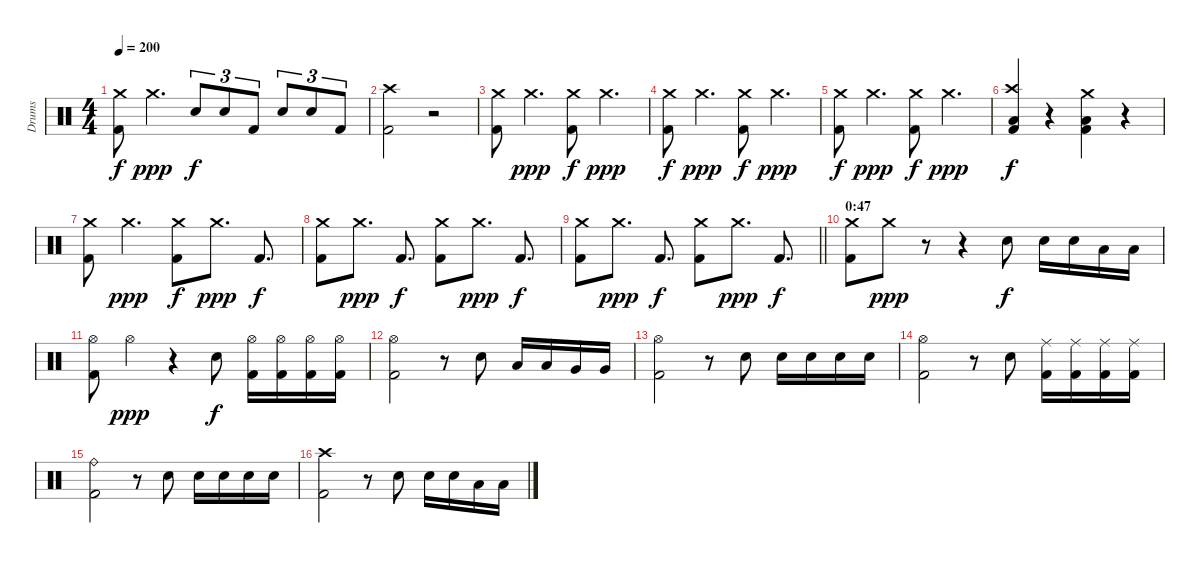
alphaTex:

\track ("Drums" "Drums") {instrument percussion}
\staff {score}
\articulation defaults
\ts (4 4)
\tempo 200
\clef neutral
\ks c
("Crash medium (hit)" "Kick (hit) 2").8{dy f} "Crash medium (hit)".4{d dy ppp} "Snare (hit) 2".8{tu (3 2) dy f} "Snare (hit) 2".8{tu (3 2)} "Kick (hit) 2".8{tu (3 2)} "Snare (hit) 2".8{tu (3 2)} "Snare (hit) 2".8{tu (3 2)} "Kick (hit) 2".8{tu (3 2)} |
("Crash high (hit)" "Kick (hit) 2").2 r.2 |
("Crash medium (hit)" "Kick (hit) 2").8 "Crash medium (hit)".4{d dy ppp} ("Crash medium (hit)" "Kick (hit) 2").8{dy f} "Crash medium (hit)".4{d dy ppp} |
("Crash medium (hit)" "Kick (hit) 2").8{dy f} "Crash medium (hit)".4{d dy ppp} ("Crash medium (hit)" "Kick (hit) 2").8{dy f} "Crash medium (hit)".4{d dy ppp} |
("Crash medium (hit)" "Kick (hit) 2").8{dy f} "Crash medium (hit)".4{d dy ppp} ("Crash medium (hit)" "Kick (hit) 2").8{dy f} "Crash medium (hit)".4{d dy ppp} |
("Crash high (hit)" "Low Floor Tom (hit)" "Kick (hit) 2").4{dy f} r.4 ("Crash medium (hit)" "Low Floor Tom (hit)" "Kick (hit) 2").4 r.4 |
("Crash medium (hit)" "Kick (hit) 2").8 "Crash medium (hit)".4{d dy ppp} ("Crash medium (hit)" "Kick (hit) 2").8{dy f} "Crash medium (hit)".8{d dy ppp} "Kick (hit) 2".8{d dy f} |
("Crash medium (hit)" "Kick (hit) 2").8 "Crash medium (hit)".8{d dy ppp} "Kick (hit) 2".8{d dy f} ("Crash medium (hit)" "Kick (hit) 2").8 "Crash medium (hit)".8{d dy ppp} "Kick (hit) 2".8{d dy f} |
\barLineRight lightlight
("Crash medium (hit)" "Kick (hit) 2").8 "Crash medium (hit)".8{d dy ppp} "Kick (hit) 2".8{d dy f} ("Crash medium (hit)" "Kick (hit) 2").8 "Crash medium (hit)".8{d dy ppp} "Kick (hit) 2".8{d dy f} |
\section ("" "0:47")
("Crash medium (hit)" "Kick (hit) 2").8 "Crash medium (hit)".8{dy ppp} r.8 r.4 "Snare (hit) 2".8{dy f} "Snare (hit) 2".16 "Snare (hit) 2".16 "Low Tom (hit)".16 "Low Tom (hit)".16 |
("Hi-Hat (open)" "Kick (hit) 2").8 "Hi-Hat (open)".4{dy ppp} r.4 "Snare (hit) 2".8{dy f} ("Hi-Hat (open)" "Kick (hit) 2").16 ("Hi-Hat (open)" "Kick (hit) 2").16 ("Hi-Hat (open)" "Kick (hit) 2").16 ("Hi-Hat (open)" "Kick (hit) 2").16 |
("Hi-Hat (open)" "Kick (hit) 2").2 r.8 "Snare (hit) 2".8 "Low Tom (hit)".16 "Low Tom (hit)".16 "Very Low Tom (hit)".16 "Very Low Tom (hit)".16 |
("Hi-Hat (open)" "Kick (hit) 2").2 r.8 "Snare (hit) 2".8 "Snare (hit) 2".16 "Snare (hit) 2".16 "Snare (hit) 2".16 "Snare (hit) 2".16 |
("Hi-Hat (open)" "Kick (hit) 2").2 r.8 "Snare (hit) 2".8 ("Ride (middle)" "Kick (hit) 2").16 ("Ride (middle)" "Kick (hit) 2").16 ("Ride (middle)" "Kick (hit) 2").16 ("Ride (middle)" "Kick (hit) 2").16 |
("Ride (bell)" "Kick (hit) 2").2 r.8 "Snare (hit) 2".8 "Snare (hit) 2".16 "Snare (hit) 2".16 "Snare (hit) 2".16 "Snare (hit) 2".16 |
("Crash high (hit)" "Kick (hit) 2").2 r.8 "Snare (hit) 2".8 "Snare (hit) 2".16 "Snare (hit) 2".16 "Low Tom (hit)".16 "Low Tom (hit)".16
